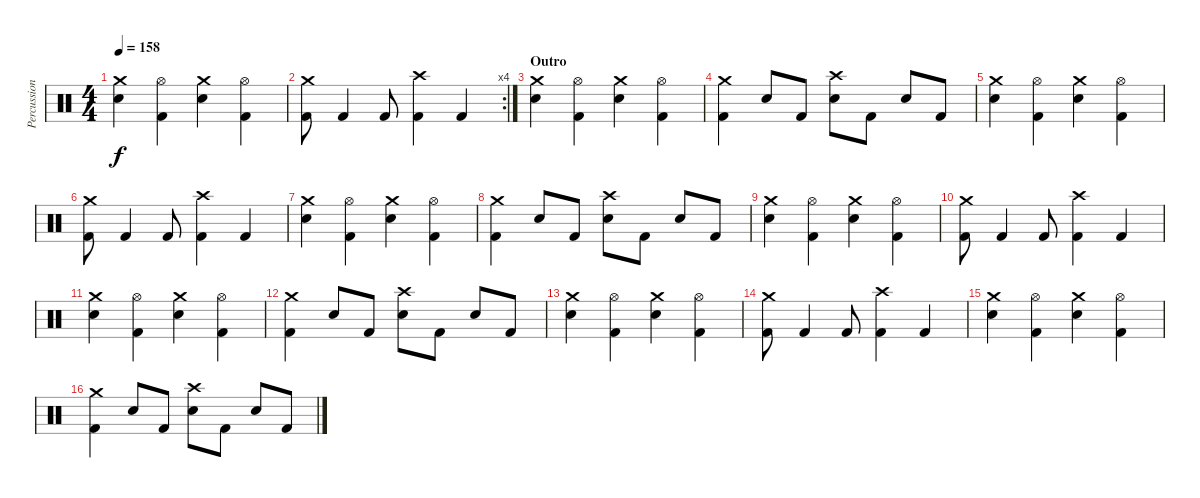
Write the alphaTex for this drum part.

\track ("Percussion" "Percussion") {instrument percussion}
\staff {score}
\articulation defaults
\ts (4 4)
\tempo 158
\clef neutral
\ks c
("Crash medium (hit)" "Snare (hit) 2").4{dy f} ("Hi-Hat (open)" "Kick (hit) 2").4 ("Crash medium (hit)" "Snare (hit) 2").4 ("Hi-Hat (open)" "Kick (hit) 2").4 |
\rc 4
("Crash medium (hit)" "Kick (hit) 2").8 "Kick (hit) 2".4 "Kick (hit) 2".8 ("Crash high (hit)" "Kick (hit) 2").4 "Kick (hit) 2".4 |
\section ("" "Outro")
("Crash medium (hit)" "Snare (hit) 2").4 ("Hi-Hat (open)" "Kick (hit) 2").4 ("Crash medium (hit)" "Snare (hit) 2").4 ("Hi-Hat (open)" "Kick (hit) 2").4 |
("Crash medium (hit)" "Kick (hit) 2").4 "Snare (hit) 2".8 "Kick (hit) 2".8 ("Crash high (hit)" "Snare (hit) 2").8 "Kick (hit) 2".8 "Snare (hit) 2".8 "Kick (hit) 2".8 |
("Crash medium (hit)" "Snare (hit) 2").4 ("Hi-Hat (open)" "Kick (hit) 2").4 ("Crash medium (hit)" "Snare (hit) 2").4 ("Hi-Hat (open)" "Kick (hit) 2").4 |
("Crash medium (hit)" "Kick (hit) 2").8 "Kick (hit) 2".4 "Kick (hit) 2".8 ("Crash high (hit)" "Kick (hit) 2").4 "Kick (hit) 2".4 |
("Crash medium (hit)" "Snare (hit) 2").4 ("Hi-Hat (open)" "Kick (hit) 2").4 ("Crash medium (hit)" "Snare (hit) 2").4 ("Hi-Hat (open)" "Kick (hit) 2").4 |
("Crash medium (hit)" "Kick (hit) 2").4 "Snare (hit) 2".8 "Kick (hit) 2".8 ("Crash high (hit)" "Snare (hit) 2").8 "Kick (hit) 2".8 "Snare (hit) 2".8 "Kick (hit) 2".8 |
("Crash medium (hit)" "Snare (hit) 2").4 ("Hi-Hat (open)" "Kick (hit) 2").4 ("Crash medium (hit)" "Snare (hit) 2").4 ("Hi-Hat (open)" "Kick (hit) 2").4 |
("Crash medium (hit)" "Kick (hit) 2").8 "Kick (hit) 2".4 "Kick (hit) 2".8 ("Crash high (hit)" "Kick (hit) 2").4 "Kick (hit) 2".4 |
("Crash medium (hit)" "Snare (hit) 2").4 ("Hi-Hat (open)" "Kick (hit) 2").4 ("Crash medium (hit)" "Snare (hit) 2").4 ("Hi-Hat (open)" "Kick (hit) 2").4 |
("Crash medium (hit)" "Kick (hit) 2").4 "Snare (hit) 2".8 "Kick (hit) 2".8 ("Crash high (hit)" "Snare (hit) 2").8 "Kick (hit) 2".8 "Snare (hit) 2".8 "Kick (hit) 2".8 |
("Crash medium (hit)" "Snare (hit) 2").4 ("Hi-Hat (open)" "Kick (hit) 2").4 ("Crash medium (hit)" "Snare (hit) 2").4 ("Hi-Hat (open)" "Kick (hit) 2").4 |
("Crash medium (hit)" "Kick (hit) 2").8 "Kick (hit) 2".4 "Kick (hit) 2".8 ("Crash high (hit)" "Kick (hit) 2").4 "Kick (hit) 2".4 |
("Crash medium (hit)" "Snare (hit) 2").4 ("Hi-Hat (open)" "Kick (hit) 2").4 ("Crash medium (hit)" "Snare (hit) 2").4 ("Hi-Hat (open)" "Kick (hit) 2").4 |
("Crash medium (hit)" "Kick (hit) 2").4 "Snare (hit) 2".8 "Kick (hit) 2".8 ("Crash high (hit)" "Snare (hit) 2").8 "Kick (hit) 2".8 "Snare (hit) 2".8 "Kick (hit) 2".8
